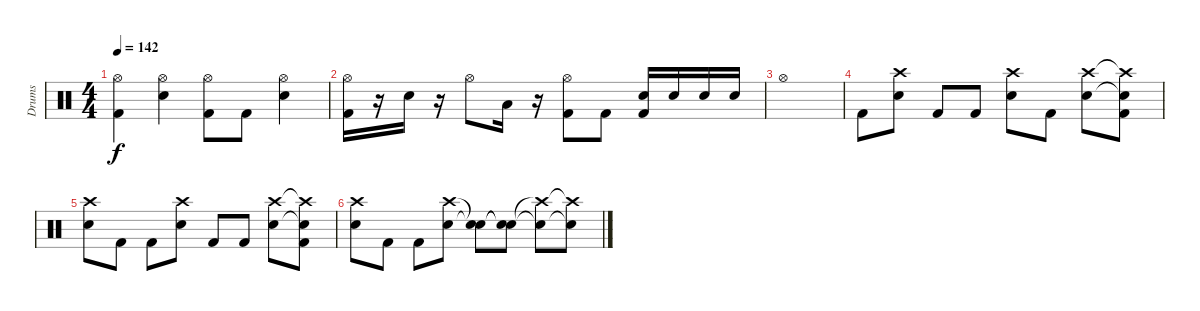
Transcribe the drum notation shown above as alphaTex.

\track ("Drums" "Drums") {instrument percussion}
\staff {score}
\articulation defaults
\ts (4 4)
\tempo 142
\clef neutral
\ks c
("Hi-Hat (open)" "Kick (hit) 2").4{dy f} ("Hi-Hat (open)" "Snare (hit) 2").4 ("Hi-Hat (open)" "Kick (hit) 2").8 "Kick (hit) 2".8 ("Hi-Hat (open)" "Snare (hit) 2").4 |
("Hi-Hat (open)" "Kick (hit) 2").16 r.16 "Snare (hit) 2".16 r.16 "Hi-Hat (open)".8 "Low Tom (hit)".16 r.16 ("Hi-Hat (open)" "Kick (hit) 2").8 "Kick (hit) 2".8 ("Snare (hit) 2" "Kick (hit) 2").16 "Snare (hit) 2".16 "Snare (hit) 2".16 "Snare (hit) 2".16 |
"Hi-Hat (open)".1 |
"Kick (hit) 2".8{txt ""} ("Crash high (hit)" "Snare (hit) 2").8 "Kick (hit) 2".8 "Kick (hit) 2".8 ("Crash high (hit)" "Snare (hit) 2").8 "Kick (hit) 2".8 ("Crash high (hit)" "Snare (hit) 2").8 ("Crash high (hit)"{t} "Snare (hit)"{t} "Kick (hit) 2").8 |
("Crash high (hit)" "Snare (hit) 2").8 "Kick (hit) 2".8 "Kick (hit) 2".8 ("Crash high (hit)" "Snare (hit) 2").8 "Kick (hit) 2".8 "Kick (hit) 2".8 ("Crash high (hit)" "Snare (hit) 2").8 ("Crash high (hit)"{t} "Snare (hit)"{t} "Kick (hit) 2").8 |
("Crash high (hit)" "Snare (hit) 2").8 "Kick (hit) 2".8 "Kick (hit) 2".8 ("Crash high (hit)" "Snare (hit) 2").8 ("Snare (hit)"{t} "Snare (hit)"{t}).8 ("Snare (hit)"{t} "Snare (hit)"{t}).8 ("Crash high (hit)"{t} "Snare (hit) 2"{t}).8 ("Crash high (hit)"{t} "Snare (hit)"{t}).8
